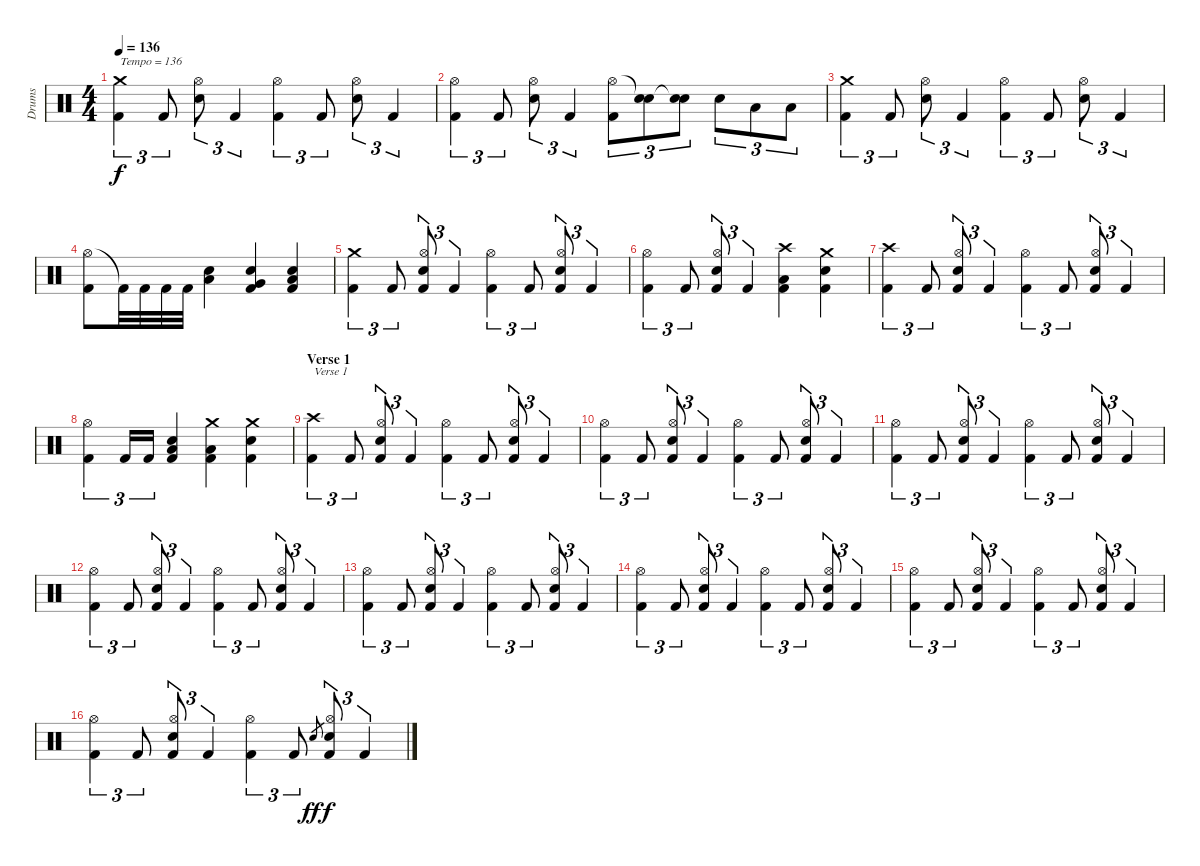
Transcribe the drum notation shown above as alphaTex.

\track ("Drums" "Drums") {instrument percussion}
\staff {score}
\articulation defaults
\ts (4 4)
\tempo 136
\clef neutral
\ks c
("Crash medium (hit)" "Kick (hit) 2").4{tu (3 2) txt "Tempo = 136" dy f} "Kick (hit) 2".8{tu (3 2)} ("Hi-Hat (open)" "Electric Snare (hit)").8{tu (3 2)} "Kick (hit) 2".4{tu (3 2)} ("Hi-Hat (open)" "Kick (hit) 2").4{tu (3 2)} "Kick (hit) 2".8{tu (3 2)} ("Hi-Hat (open)" "Electric Snare (hit)").8{tu (3 2)} "Kick (hit) 2".4{tu (3 2)} |
("Hi-Hat (open)" "Kick (hit) 2").4{tu (3 2)} "Kick (hit) 2".8{tu (3 2)} ("Hi-Hat (open)" "Electric Snare (hit)").8{tu (3 2)} "Kick (hit) 2".4{tu (3 2)} ("Hi-Hat (open)" "Kick (hit) 2").8{tu (3 2)} ("Snare (hit)"{t} "Electric Snare (hit)").8{tu (3 2)} ("Snare (hit)"{t} "Electric Snare (hit)").8{tu (3 2)} "Electric Snare (hit)".8{tu (3 2)} "Low Floor Tom (hit)".8{tu (3 2)} "Low Floor Tom (hit)".8{tu (3 2)} |
("Crash medium (hit)" "Kick (hit) 2").4{tu (3 2)} "Kick (hit) 2".8{tu (3 2)} ("Hi-Hat (open)" "Electric Snare (hit)").8{tu (3 2)} "Kick (hit) 2".4{tu (3 2)} ("Hi-Hat (open)" "Kick (hit) 2").4{tu (3 2)} "Kick (hit) 2".8{tu (3 2)} ("Hi-Hat (open)" "Electric Snare (hit)").8{tu (3 2)} "Kick (hit) 2".4{tu (3 2)} |
("Hi-Hat (open)" "Kick (hit) 2").8 "Kick (hit) 2"{t}.32 "Kick (hit) 2".32 "Kick (hit) 2".32 "Kick (hit) 2".32 ("Low Floor Tom (hit)" "Electric Snare (hit)").4 ("Very Low Tom (hit)" "Electric Snare (hit)" "Kick (hit) 2").4 ("Low Floor Tom (hit)" "Electric Snare (hit)" "Kick (hit) 2").4 |
("Crash medium (hit)" "Kick (hit) 2").4{tu (3 2)} "Kick (hit) 2".8{tu (3 2)} ("Hi-Hat (open)" "Electric Snare (hit)" "Kick (hit) 2").8{tu (3 2)} "Kick (hit) 2".4{tu (3 2)} ("Hi-Hat (open)" "Kick (hit) 2").4{tu (3 2)} "Kick (hit) 2".8{tu (3 2)} ("Hi-Hat (open)" "Electric Snare (hit)" "Kick (hit) 2").8{tu (3 2)} "Kick (hit) 2".4{tu (3 2)} |
("Hi-Hat (open)" "Kick (hit) 2").4{tu (3 2)} "Kick (hit) 2".8{tu (3 2)} ("Hi-Hat (open)" "Electric Snare (hit)" "Kick (hit) 2").8{tu (3 2)} "Kick (hit) 2".4{tu (3 2)} ("Crash high (hit)" "Low Floor Tom (hit)" "Kick (hit) 2").4 ("Crash medium (hit)" "Electric Snare (hit)" "Kick (hit) 2").4 |
("Crash high (hit)" "Kick (hit) 2").4{tu (3 2)} "Kick (hit) 2".8{tu (3 2)} ("Hi-Hat (open)" "Electric Snare (hit)" "Kick (hit) 2").8{tu (3 2)} "Kick (hit) 2".4{tu (3 2)} ("Hi-Hat (open)" "Kick (hit) 2").4{tu (3 2)} "Kick (hit) 2".8{tu (3 2)} ("Hi-Hat (open)" "Electric Snare (hit)" "Kick (hit) 2").8{tu (3 2)} "Kick (hit) 2".4{tu (3 2)} |
("Hi-Hat (open)" "Kick (hit) 2").4{tu (3 2)} "Kick (hit) 2".16{tu (3 2)} "Kick (hit) 2".16{tu (3 2)} ("Low Floor Tom (hit)" "Electric Snare (hit)" "Kick (hit) 2").4 ("Crash medium (hit)" "Low Floor Tom (hit)" "Kick (hit) 2").4 ("Crash medium (hit)" "Electric Snare (hit)" "Kick (hit) 2").4 |
\section ("" "Verse 1")
("Crash high (hit)" "Kick (hit) 2").4{tu (3 2) txt "Verse 1"} "Kick (hit) 2".8{tu (3 2)} ("Hi-Hat (open)" "Electric Snare (hit)" "Kick (hit) 2").8{tu (3 2)} "Kick (hit) 2".4{tu (3 2)} ("Hi-Hat (open)" "Kick (hit) 2").4{tu (3 2)} "Kick (hit) 2".8{tu (3 2)} ("Hi-Hat (open)" "Electric Snare (hit)" "Kick (hit) 2").8{tu (3 2)} "Kick (hit) 2".4{tu (3 2)} |
("Hi-Hat (open)" "Kick (hit) 2").4{tu (3 2)} "Kick (hit) 2".8{tu (3 2)} ("Hi-Hat (open)" "Electric Snare (hit)" "Kick (hit) 2").8{tu (3 2)} "Kick (hit) 2".4{tu (3 2)} ("Hi-Hat (open)" "Kick (hit) 2").4{tu (3 2)} "Kick (hit) 2".8{tu (3 2)} ("Hi-Hat (open)" "Electric Snare (hit)" "Kick (hit) 2").8{tu (3 2)} "Kick (hit) 2".4{tu (3 2)} |
("Hi-Hat (open)" "Kick (hit) 2").4{tu (3 2)} "Kick (hit) 2".8{tu (3 2)} ("Hi-Hat (open)" "Electric Snare (hit)" "Kick (hit) 2").8{tu (3 2)} "Kick (hit) 2".4{tu (3 2)} ("Hi-Hat (open)" "Kick (hit) 2").4{tu (3 2)} "Kick (hit) 2".8{tu (3 2)} ("Hi-Hat (open)" "Electric Snare (hit)" "Kick (hit) 2").8{tu (3 2)} "Kick (hit) 2".4{tu (3 2)} |
("Hi-Hat (open)" "Kick (hit) 2").4{tu (3 2)} "Kick (hit) 2".8{tu (3 2)} ("Hi-Hat (open)" "Electric Snare (hit)" "Kick (hit) 2").8{tu (3 2)} "Kick (hit) 2".4{tu (3 2)} ("Hi-Hat (open)" "Kick (hit) 2").4{tu (3 2)} "Kick (hit) 2".8{tu (3 2)} ("Hi-Hat (open)" "Electric Snare (hit)" "Kick (hit) 2").8{tu (3 2)} "Kick (hit) 2".4{tu (3 2)} |
("Hi-Hat (open)" "Kick (hit) 2").4{tu (3 2)} "Kick (hit) 2".8{tu (3 2)} ("Hi-Hat (open)" "Electric Snare (hit)" "Kick (hit) 2").8{tu (3 2)} "Kick (hit) 2".4{tu (3 2)} ("Hi-Hat (open)" "Kick (hit) 2").4{tu (3 2)} "Kick (hit) 2".8{tu (3 2)} ("Hi-Hat (open)" "Electric Snare (hit)" "Kick (hit) 2").8{tu (3 2)} "Kick (hit) 2".4{tu (3 2)} |
("Hi-Hat (open)" "Kick (hit) 2").4{tu (3 2)} "Kick (hit) 2".8{tu (3 2)} ("Hi-Hat (open)" "Electric Snare (hit)" "Kick (hit) 2").8{tu (3 2)} "Kick (hit) 2".4{tu (3 2)} ("Hi-Hat (open)" "Kick (hit) 2").4{tu (3 2)} "Kick (hit) 2".8{tu (3 2)} ("Hi-Hat (open)" "Electric Snare (hit)" "Kick (hit) 2").8{tu (3 2)} "Kick (hit) 2".4{tu (3 2)} |
("Hi-Hat (open)" "Kick (hit) 2").4{tu (3 2)} "Kick (hit) 2".8{tu (3 2)} ("Hi-Hat (open)" "Electric Snare (hit)" "Kick (hit) 2").8{tu (3 2)} "Kick (hit) 2".4{tu (3 2)} ("Hi-Hat (open)" "Kick (hit) 2").4{tu (3 2)} "Kick (hit) 2".8{tu (3 2)} ("Hi-Hat (open)" "Electric Snare (hit)" "Kick (hit) 2").8{tu (3 2)} "Kick (hit) 2".4{tu (3 2)} |
("Hi-Hat (open)" "Kick (hit) 2").4{tu (3 2)} "Kick (hit) 2".8{tu (3 2)} ("Hi-Hat (open)" "Electric Snare (hit)" "Kick (hit) 2").8{tu (3 2)} "Kick (hit) 2".4{tu (3 2)} ("Hi-Hat (open)" "Kick (hit) 2").4{tu (3 2)} "Kick (hit) 2".8{tu (3 2)} "Electric Snare (hit)".8{gr dy ff} ("Hi-Hat (open)" "Electric Snare (hit)" "Kick (hit) 2").8{tu (3 2) dy f} "Kick (hit) 2".4{tu (3 2)}
